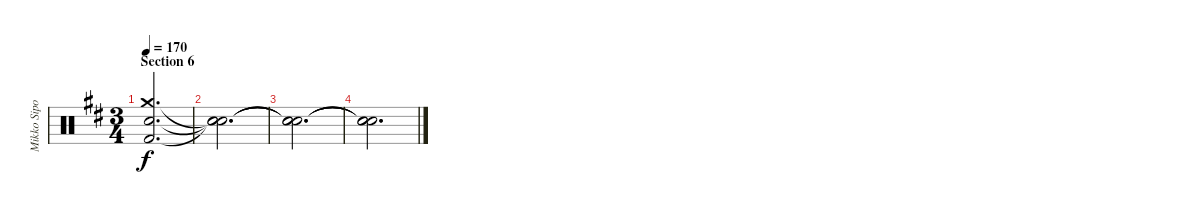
\track ("Mikko Sipola (drums)" "Mikko Sipo") {instrument percussion}
\staff {score}
\articulation defaults
\ts (3 4)
\section ("" "Section 6")
\tempo 170
\clef neutral
\ks bminor
("Electric Snare (hit)" "Crash medium (hit)" "Kick (hit) 2").2{d dy f} |
("Snare (hit)"{t} "Snare (hit)"{t} "Snare (hit)"{t}).2{d} |
("Snare (hit)"{t} "Snare (hit)"{t} "Snare (hit)"{t}).2{d} |
("Snare (hit)"{t} "Snare (hit)"{t} "Snare (hit)"{t}).2{d}
